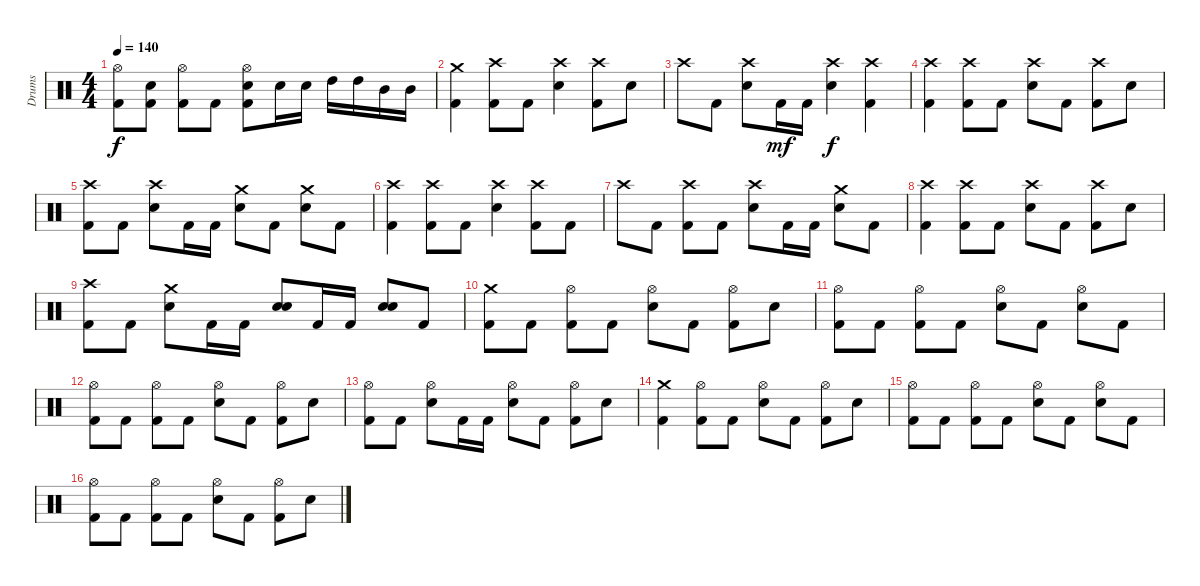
\track ("Drums" "Drums") {instrument percussion}
\staff {score}
\articulation defaults
\ts (4 4)
\tempo 140
\clef neutral
\ks c
("Hi-Hat (open)" "Kick (hit) 2").8{dy f} ("Electric Snare (hit)" "Kick (hit) 2").8 ("Hi-Hat (open)" "Kick (hit) 2").8 "Kick (hit) 2".8 ("Hi-Hat (open)" "Electric Snare (hit)" "Kick (hit) 2").8 "Electric Snare (hit)".16 "Electric Snare (hit)".16 "High Tom (hit)".16 "High Tom (hit)".16 "Mid Tom (hit)".16 "Mid Tom (hit)".16 |
("Crash medium (hit)" "Kick (hit) 2").4 ("Crash high (hit)" "Kick (hit) 2").8 "Kick (hit) 2".8 ("Crash high (hit)" "Electric Snare (hit)").4 ("Crash high (hit)" "Kick (hit) 2").8 "Electric Snare (hit)".8 |
"Crash high (hit)".8 "Kick (hit) 2".8 ("Crash high (hit)" "Electric Snare (hit)").8 "Kick (hit) 2".16{dy mf} "Kick (hit) 2".16 ("Crash high (hit)" "Electric Snare (hit)").4{dy f} ("Crash high (hit)" "Kick (hit) 2").4 |
("Crash high (hit)" "Kick (hit) 2").4 ("Crash high (hit)" "Kick (hit) 2").8 "Kick (hit) 2".8 ("Crash high (hit)" "Electric Snare (hit)").8 "Kick (hit) 2".8 ("Crash high (hit)" "Kick (hit) 2").8 "Electric Snare (hit)".8 |
("Crash high (hit)" "Kick (hit) 2").8 "Kick (hit) 2".8 ("Crash high (hit)" "Electric Snare (hit)").8 "Kick (hit) 2".16 "Kick (hit) 2".16 ("Crash medium (hit)" "Electric Snare (hit)").8 "Kick (hit) 2".8 ("Crash medium (hit)" "Electric Snare (hit)").8 "Kick (hit) 2".8 |
("Crash high (hit)" "Kick (hit) 2").4 ("Crash high (hit)" "Kick (hit) 2").8 "Kick (hit) 2".8 ("Crash high (hit)" "Electric Snare (hit)").4 ("Crash high (hit)" "Kick (hit) 2").8 "Kick (hit) 2".8 |
"Crash high (hit)".8 "Kick (hit) 2".8 ("Crash high (hit)" "Kick (hit) 2").8 "Kick (hit) 2".8 ("Crash high (hit)" "Electric Snare (hit)").8 "Kick (hit) 2".16 "Kick (hit) 2".16 ("Crash medium (hit)" "Electric Snare (hit)").8 "Kick (hit) 2".8 |
("Crash high (hit)" "Kick (hit) 2").4 ("Crash high (hit)" "Kick (hit) 2").8 "Kick (hit) 2".8 ("Crash high (hit)" "Electric Snare (hit)").8 "Kick (hit) 2".8 ("Crash high (hit)" "Kick (hit) 2").8 "Electric Snare (hit)".8 |
("Crash high (hit)" "Kick (hit) 2").8 "Kick (hit) 2".8 ("Crash medium (hit)" "Electric Snare (hit)").8 "Kick (hit) 2".16 "Kick (hit) 2".16 ("Electric Snare (hit)" "Electric Snare (hit)").8{bd 120} "Kick (hit) 2".16 "Kick (hit) 2".16 ("Electric Snare (hit)" "Electric Snare (hit)").8{bd 120} "Kick (hit) 2".8 |
("Crash medium (hit)" "Kick (hit) 2").8 "Kick (hit) 2".8 ("Hi-Hat (open)" "Kick (hit) 2").8 "Kick (hit) 2".8 ("Hi-Hat (open)" "Electric Snare (hit)").8 "Kick (hit) 2".8 ("Hi-Hat (open)" "Kick (hit) 2").8 "Electric Snare (hit)".8 |
("Hi-Hat (open)" "Kick (hit) 2").8 "Kick (hit) 2".8 ("Hi-Hat (open)" "Kick (hit) 2").8 "Kick (hit) 2".8 ("Hi-Hat (open)" "Electric Snare (hit)").8 "Kick (hit) 2".8 ("Hi-Hat (open)" "Electric Snare (hit)").8 "Kick (hit) 2".8 |
("Hi-Hat (open)" "Kick (hit) 2").8 "Kick (hit) 2".8 ("Hi-Hat (open)" "Kick (hit) 2").8 "Kick (hit) 2".8 ("Hi-Hat (open)" "Electric Snare (hit)").8 "Kick (hit) 2".8 ("Hi-Hat (open)" "Kick (hit) 2").8 "Electric Snare (hit)".8 |
("Hi-Hat (open)" "Kick (hit) 2").8 "Kick (hit) 2".8 ("Hi-Hat (open)" "Electric Snare (hit)").8 "Kick (hit) 2".16 "Kick (hit) 2".16 ("Hi-Hat (open)" "Electric Snare (hit)").8 "Kick (hit) 2".8 ("Hi-Hat (open)" "Kick (hit) 2").8 "Electric Snare (hit)".8 |
("Crash medium (hit)" "Kick (hit) 2").4 ("Hi-Hat (open)" "Kick (hit) 2").8 "Kick (hit) 2".8 ("Hi-Hat (open)" "Electric Snare (hit)").8 "Kick (hit) 2".8 ("Hi-Hat (open)" "Kick (hit) 2").8 "Electric Snare (hit)".8 |
("Hi-Hat (open)" "Kick (hit) 2").8 "Kick (hit) 2".8 ("Hi-Hat (open)" "Kick (hit) 2").8 "Kick (hit) 2".8 ("Hi-Hat (open)" "Electric Snare (hit)").8 "Kick (hit) 2".8 ("Hi-Hat (open)" "Electric Snare (hit)").8 "Kick (hit) 2".8 |
("Hi-Hat (open)" "Kick (hit) 2").8 "Kick (hit) 2".8 ("Hi-Hat (open)" "Kick (hit) 2").8 "Kick (hit) 2".8 ("Hi-Hat (open)" "Electric Snare (hit)").8 "Kick (hit) 2".8 ("Hi-Hat (open)" "Kick (hit) 2").8 "Electric Snare (hit)".8
